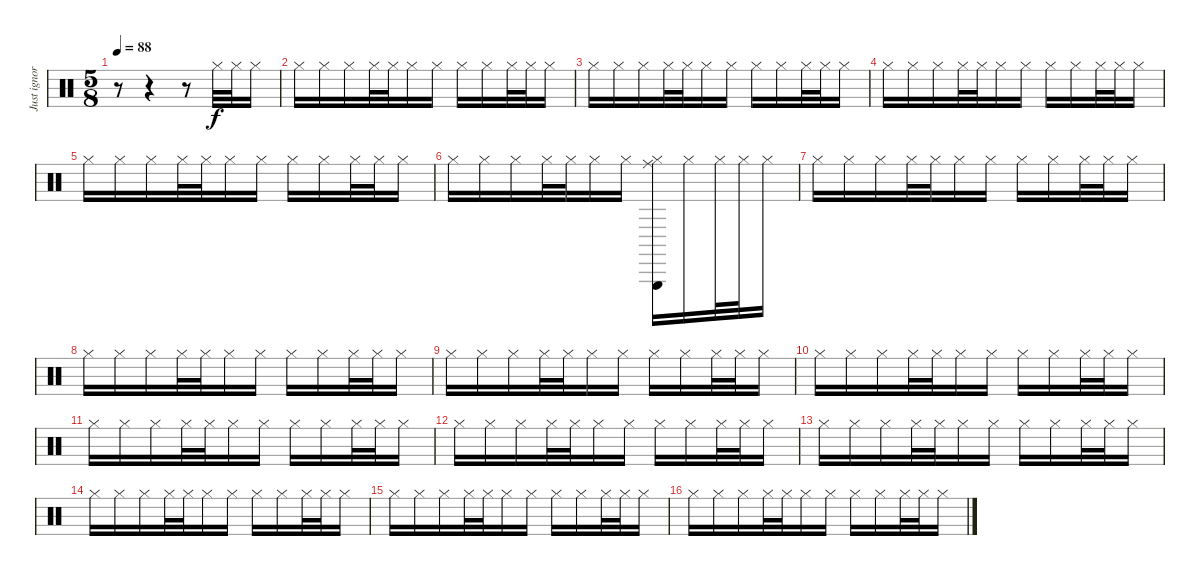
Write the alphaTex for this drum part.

\track ("Just ignore this track" "Just ignor") {instrument percussion}
\staff {score}
\articulation defaults
\ts (5 8)
\tempo 88
\clef neutral
\ks c
r.8{dy f} r.4 r.8 "Hi-Hat (closed)".32 "Hi-Hat (closed)".32 "Hi-Hat (closed)".16 |
"Hi-Hat (closed)".16 "Hi-Hat (closed)".16 "Hi-Hat (closed)".16 "Hi-Hat (closed)".32 "Hi-Hat (closed)".32 "Hi-Hat (closed)".16 "Hi-Hat (closed)".16 "Hi-Hat (closed)".16 "Hi-Hat (closed)".16 "Hi-Hat (closed)".32 "Hi-Hat (closed)".32 "Hi-Hat (closed)".16 |
"Hi-Hat (closed)".16 "Hi-Hat (closed)".16 "Hi-Hat (closed)".16 "Hi-Hat (closed)".32 "Hi-Hat (closed)".32 "Hi-Hat (closed)".16 "Hi-Hat (closed)".16 "Hi-Hat (closed)".16 "Hi-Hat (closed)".16 "Hi-Hat (closed)".32 "Hi-Hat (closed)".32 "Hi-Hat (closed)".16 |
"Hi-Hat (closed)".16 "Hi-Hat (closed)".16 "Hi-Hat (closed)".16 "Hi-Hat (closed)".32 "Hi-Hat (closed)".32 "Hi-Hat (closed)".16 "Hi-Hat (closed)".16 "Hi-Hat (closed)".16 "Hi-Hat (closed)".16 "Hi-Hat (closed)".32 "Hi-Hat (closed)".32 "Hi-Hat (closed)".16 |
"Hi-Hat (closed)".16 "Hi-Hat (closed)".16 "Hi-Hat (closed)".16 "Hi-Hat (closed)".32 "Hi-Hat (closed)".32 "Hi-Hat (closed)".16 "Hi-Hat (closed)".16 "Hi-Hat (closed)".16 "Hi-Hat (closed)".16 "Hi-Hat (closed)".32 "Hi-Hat (closed)".32 "Hi-Hat (closed)".16 |
"Hi-Hat (closed)".16 "Hi-Hat (closed)".16 "Hi-Hat (closed)".16 "Hi-Hat (closed)".32 "Hi-Hat (closed)".32 "Hi-Hat (closed)".16 "Hi-Hat (closed)".16 ("Hi-Hat (closed)" "Triangle (hit)" "Ride (middle)").16 "Hi-Hat (closed)".16 "Hi-Hat (closed)".32 "Hi-Hat (closed)".32 "Hi-Hat (closed)".16 |
"Hi-Hat (closed)".16 "Hi-Hat (closed)".16 "Hi-Hat (closed)".16 "Hi-Hat (closed)".32 "Hi-Hat (closed)".32 "Hi-Hat (closed)".16 "Hi-Hat (closed)".16 "Hi-Hat (closed)".16 "Hi-Hat (closed)".16 "Hi-Hat (closed)".32 "Hi-Hat (closed)".32 "Hi-Hat (closed)".16 |
"Hi-Hat (closed)".16 "Hi-Hat (closed)".16 "Hi-Hat (closed)".16 "Hi-Hat (closed)".32 "Hi-Hat (closed)".32 "Hi-Hat (closed)".16 "Hi-Hat (closed)".16 "Hi-Hat (closed)".16 "Hi-Hat (closed)".16 "Hi-Hat (closed)".32 "Hi-Hat (closed)".32 "Hi-Hat (closed)".16 |
"Hi-Hat (closed)".16 "Hi-Hat (closed)".16 "Hi-Hat (closed)".16 "Hi-Hat (closed)".32 "Hi-Hat (closed)".32 "Hi-Hat (closed)".16 "Hi-Hat (closed)".16 "Hi-Hat (closed)".16 "Hi-Hat (closed)".16 "Hi-Hat (closed)".32 "Hi-Hat (closed)".32 "Hi-Hat (closed)".16 |
"Hi-Hat (closed)".16 "Hi-Hat (closed)".16 "Hi-Hat (closed)".16 "Hi-Hat (closed)".32 "Hi-Hat (closed)".32 "Hi-Hat (closed)".16 "Hi-Hat (closed)".16 "Hi-Hat (closed)".16 "Hi-Hat (closed)".16 "Hi-Hat (closed)".32 "Hi-Hat (closed)".32 "Hi-Hat (closed)".16 |
"Hi-Hat (closed)".16 "Hi-Hat (closed)".16 "Hi-Hat (closed)".16 "Hi-Hat (closed)".32 "Hi-Hat (closed)".32 "Hi-Hat (closed)".16 "Hi-Hat (closed)".16 "Hi-Hat (closed)".16 "Hi-Hat (closed)".16 "Hi-Hat (closed)".32 "Hi-Hat (closed)".32 "Hi-Hat (closed)".16 |
"Hi-Hat (closed)".16 "Hi-Hat (closed)".16 "Hi-Hat (closed)".16 "Hi-Hat (closed)".32 "Hi-Hat (closed)".32 "Hi-Hat (closed)".16 "Hi-Hat (closed)".16 "Hi-Hat (closed)".16 "Hi-Hat (closed)".16 "Hi-Hat (closed)".32 "Hi-Hat (closed)".32 "Hi-Hat (closed)".16 |
"Hi-Hat (closed)".16 "Hi-Hat (closed)".16 "Hi-Hat (closed)".16 "Hi-Hat (closed)".32 "Hi-Hat (closed)".32 "Hi-Hat (closed)".16 "Hi-Hat (closed)".16 "Hi-Hat (closed)".16 "Hi-Hat (closed)".16 "Hi-Hat (closed)".32 "Hi-Hat (closed)".32 "Hi-Hat (closed)".16 |
"Hi-Hat (closed)".16 "Hi-Hat (closed)".16 "Hi-Hat (closed)".16 "Hi-Hat (closed)".32 "Hi-Hat (closed)".32 "Hi-Hat (closed)".16 "Hi-Hat (closed)".16 "Hi-Hat (closed)".16 "Hi-Hat (closed)".16 "Hi-Hat (closed)".32 "Hi-Hat (closed)".32 "Hi-Hat (closed)".16 |
"Hi-Hat (closed)".16 "Hi-Hat (closed)".16 "Hi-Hat (closed)".16 "Hi-Hat (closed)".32 "Hi-Hat (closed)".32 "Hi-Hat (closed)".16 "Hi-Hat (closed)".16 "Hi-Hat (closed)".16 "Hi-Hat (closed)".16 "Hi-Hat (closed)".32 "Hi-Hat (closed)".32 "Hi-Hat (closed)".16 |
"Hi-Hat (closed)".16 "Hi-Hat (closed)".16 "Hi-Hat (closed)".16 "Hi-Hat (closed)".32 "Hi-Hat (closed)".32 "Hi-Hat (closed)".16 "Hi-Hat (closed)".16 "Hi-Hat (closed)".16 "Hi-Hat (closed)".16 "Hi-Hat (closed)".32 "Hi-Hat (closed)".32 "Hi-Hat (closed)".16
